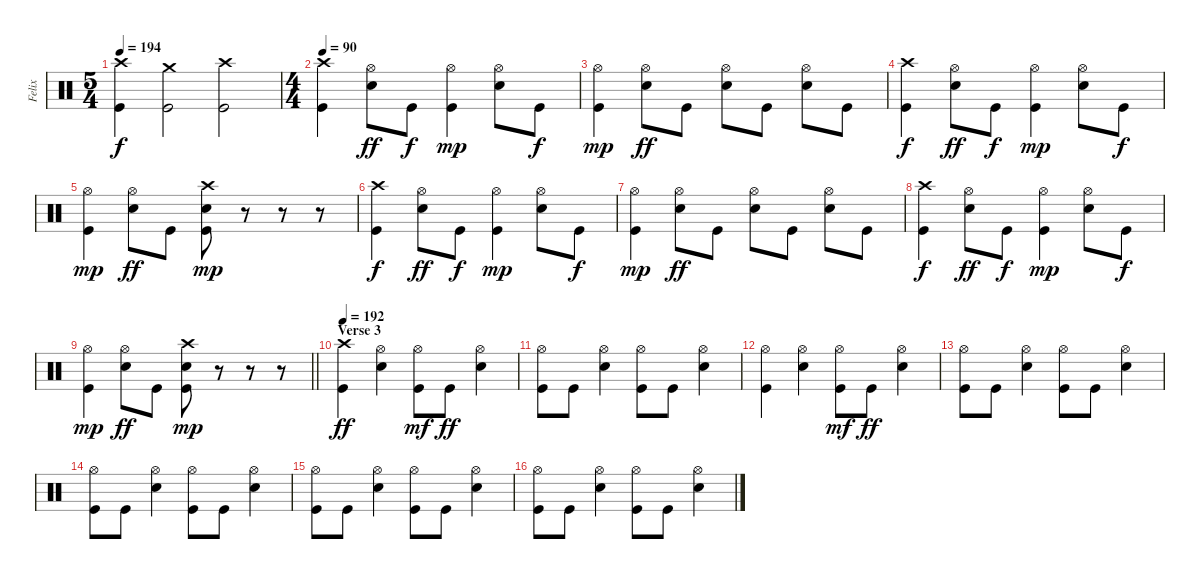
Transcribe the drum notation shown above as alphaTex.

\track ("Felix" "Felix") {instrument percussion}
\staff {score}
\articulation defaults
\ts (5 4)
\tempo 194
\clef neutral
\ks c
("Crash high (hit)" "Kick (hit)").4{dy f} ("Crash medium (hit)" "Kick (hit)").2 ("Crash high (hit)" "Kick (hit)").2 |
\ts (4 4)
\tempo 90
("Crash high (hit)" "Kick (hit)").4 ("Hi-Hat (open)" "Snare (hit) 2").8{dy ff} "Kick (hit)".8{dy f} ("Hi-Hat (open)" "Kick (hit)").4{dy mp} ("Hi-Hat (open)" "Snare (hit) 2").8 "Kick (hit)".8{dy f} |
("Hi-Hat (open)" "Kick (hit)").4{dy mp} ("Hi-Hat (open)" "Snare (hit) 2").8{dy ff} "Kick (hit)".8 ("Hi-Hat (open)" "Snare (hit) 2").8 "Kick (hit)".8 ("Hi-Hat (open)" "Snare (hit) 2").8 "Kick (hit)".8 |
("Crash high (hit)" "Kick (hit)").4{dy f} ("Hi-Hat (open)" "Snare (hit) 2").8{dy ff} "Kick (hit)".8{dy f} ("Hi-Hat (open)" "Kick (hit)").4{dy mp} ("Hi-Hat (open)" "Snare (hit) 2").8 "Kick (hit)".8{dy f} |
("Hi-Hat (open)" "Kick (hit)").4{dy mp} ("Hi-Hat (open)" "Snare (hit) 2").8{dy ff} "Kick (hit)".8 ("Crash high (hit)" "Snare (hit) 2" "Kick (hit)").8{dy mp} r.8 r.8 r.8 |
("Crash high (hit)" "Kick (hit)").4{dy f} ("Hi-Hat (open)" "Snare (hit) 2").8{dy ff} "Kick (hit)".8{dy f} ("Hi-Hat (open)" "Kick (hit)").4{dy mp} ("Hi-Hat (open)" "Snare (hit) 2").8 "Kick (hit)".8{dy f} |
("Hi-Hat (open)" "Kick (hit)").4{dy mp} ("Hi-Hat (open)" "Snare (hit) 2").8{dy ff} "Kick (hit)".8 ("Hi-Hat (open)" "Snare (hit) 2").8 "Kick (hit)".8 ("Hi-Hat (open)" "Snare (hit) 2").8 "Kick (hit)".8 |
("Crash high (hit)" "Kick (hit)").4{dy f} ("Hi-Hat (open)" "Snare (hit) 2").8{dy ff} "Kick (hit)".8{dy f} ("Hi-Hat (open)" "Kick (hit)").4{dy mp} ("Hi-Hat (open)" "Snare (hit) 2").8 "Kick (hit)".8{dy f} |
\barLineRight lightlight
("Hi-Hat (open)" "Kick (hit)").4{dy mp} ("Hi-Hat (open)" "Snare (hit) 2").8{dy ff} "Kick (hit)".8 ("Crash high (hit)" "Snare (hit) 2" "Kick (hit)").8{dy mp} r.8 r.8 r.8 |
\section ("" "Verse 3")
\tempo 192
("Crash high (hit)" "Kick (hit)").4{dy ff} ("Hi-Hat (open)" "Snare (hit) 2").4 ("Hi-Hat (open)" "Kick (hit)").8{dy mf} "Kick (hit)".8{dy ff} ("Hi-Hat (open)" "Snare (hit) 2").4 |
("Hi-Hat (open)" "Kick (hit)").8 "Kick (hit)".8 ("Hi-Hat (open)" "Snare (hit) 2").4 ("Hi-Hat (open)" "Kick (hit)").8 "Kick (hit)".8 ("Hi-Hat (open)" "Snare (hit) 2").4 |
("Hi-Hat (open)" "Kick (hit)").4 ("Hi-Hat (open)" "Snare (hit) 2").4 ("Hi-Hat (open)" "Kick (hit)").8{dy mf} "Kick (hit)".8{dy ff} ("Hi-Hat (open)" "Snare (hit) 2").4 |
("Hi-Hat (open)" "Kick (hit)").8 "Kick (hit)".8 ("Hi-Hat (open)" "Snare (hit) 2").4 ("Hi-Hat (open)" "Kick (hit)").8 "Kick (hit)".8 ("Hi-Hat (open)" "Snare (hit) 2").4 |
("Hi-Hat (open)" "Kick (hit)").8 "Kick (hit)".8 ("Hi-Hat (open)" "Snare (hit) 2").4 ("Hi-Hat (open)" "Kick (hit)").8 "Kick (hit)".8 ("Hi-Hat (open)" "Snare (hit) 2").4 |
("Hi-Hat (open)" "Kick (hit)").8 "Kick (hit)".8 ("Hi-Hat (open)" "Snare (hit) 2").4 ("Hi-Hat (open)" "Kick (hit)").8 "Kick (hit)".8 ("Hi-Hat (open)" "Snare (hit) 2").4 |
("Hi-Hat (open)" "Kick (hit)").8 "Kick (hit)".8 ("Hi-Hat (open)" "Snare (hit) 2").4 ("Hi-Hat (open)" "Kick (hit)").8 "Kick (hit)".8 ("Hi-Hat (open)" "Snare (hit) 2").4
